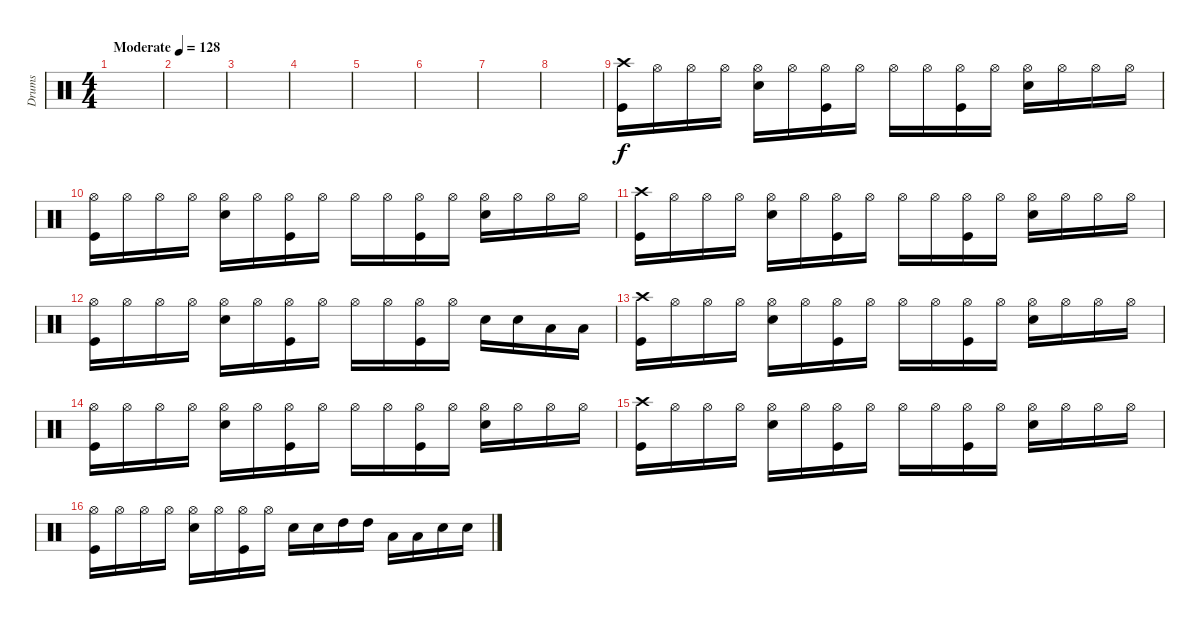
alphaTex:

\track ("Drums" "Drums") {instrument percussion}
\staff {score}
\articulation defaults
\ts (4 4)
\tempo (128 "Moderate")
\clef neutral
\ks c
|
|
|
|
|
|
|
|
("Kick (hit)" "Crash high (hit)").16 "Hi-Hat (open)".16 "Hi-Hat (open)".16 "Hi-Hat (open)".16 ("Snare (hit) 2" "Hi-Hat (open)").16 "Hi-Hat (open)".16 ("Kick (hit)" "Hi-Hat (open)").16 "Hi-Hat (open)".16 "Hi-Hat (open)".16 "Hi-Hat (open)".16 ("Kick (hit)" "Hi-Hat (open)").16 "Hi-Hat (open)".16 ("Snare (hit) 2" "Hi-Hat (open)").16 "Hi-Hat (open)".16 "Hi-Hat (open)".16 "Hi-Hat (open)".16 |
("Kick (hit)" "Hi-Hat (open)").16 "Hi-Hat (open)".16 "Hi-Hat (open)".16 "Hi-Hat (open)".16 ("Snare (hit) 2" "Hi-Hat (open)").16 "Hi-Hat (open)".16 ("Kick (hit)" "Hi-Hat (open)").16 "Hi-Hat (open)".16 "Hi-Hat (open)".16 "Hi-Hat (open)".16 ("Kick (hit)" "Hi-Hat (open)").16 "Hi-Hat (open)".16 ("Snare (hit) 2" "Hi-Hat (open)").16 "Hi-Hat (open)".16 "Hi-Hat (open)".16 "Hi-Hat (open)".16 |
("Kick (hit)" "Crash high (hit)").16 "Hi-Hat (open)".16 "Hi-Hat (open)".16 "Hi-Hat (open)".16 ("Snare (hit) 2" "Hi-Hat (open)").16 "Hi-Hat (open)".16 ("Kick (hit)" "Hi-Hat (open)").16 "Hi-Hat (open)".16 "Hi-Hat (open)".16 "Hi-Hat (open)".16 ("Kick (hit)" "Hi-Hat (open)").16 "Hi-Hat (open)".16 ("Snare (hit) 2" "Hi-Hat (open)").16 "Hi-Hat (open)".16 "Hi-Hat (open)".16 "Hi-Hat (open)".16 |
("Kick (hit)" "Hi-Hat (open)").16 "Hi-Hat (open)".16 "Hi-Hat (open)".16 "Hi-Hat (open)".16 ("Snare (hit) 2" "Hi-Hat (open)").16 "Hi-Hat (open)".16 ("Kick (hit)" "Hi-Hat (open)").16 "Hi-Hat (open)".16 "Hi-Hat (open)".16 "Hi-Hat (open)".16 ("Kick (hit)" "Hi-Hat (open)").16 "Hi-Hat (open)".16 "Snare (hit) 2".16 "Electric Snare (hit)".16 "Low Tom (hit)".16 "Low Tom (hit)".16 |
("Kick (hit)" "Crash high (hit)").16 "Hi-Hat (open)".16 "Hi-Hat (open)".16 "Hi-Hat (open)".16 ("Snare (hit) 2" "Hi-Hat (open)").16 "Hi-Hat (open)".16 ("Kick (hit)" "Hi-Hat (open)").16 "Hi-Hat (open)".16 "Hi-Hat (open)".16 "Hi-Hat (open)".16 ("Kick (hit)" "Hi-Hat (open)").16 "Hi-Hat (open)".16 ("Snare (hit) 2" "Hi-Hat (open)").16 "Hi-Hat (open)".16 "Hi-Hat (open)".16 "Hi-Hat (open)".16 |
("Kick (hit)" "Hi-Hat (open)").16 "Hi-Hat (open)".16 "Hi-Hat (open)".16 "Hi-Hat (open)".16 ("Snare (hit) 2" "Hi-Hat (open)").16 "Hi-Hat (open)".16 ("Kick (hit)" "Hi-Hat (open)").16 "Hi-Hat (open)".16 "Hi-Hat (open)".16 "Hi-Hat (open)".16 ("Kick (hit)" "Hi-Hat (open)").16 "Hi-Hat (open)".16 ("Snare (hit) 2" "Hi-Hat (open)").16 "Hi-Hat (open)".16 "Hi-Hat (open)".16 "Hi-Hat (open)".16 |
("Kick (hit)" "Crash high (hit)").16 "Hi-Hat (open)".16 "Hi-Hat (open)".16 "Hi-Hat (open)".16 ("Snare (hit) 2" "Hi-Hat (open)").16 "Hi-Hat (open)".16 ("Kick (hit)" "Hi-Hat (open)").16 "Hi-Hat (open)".16 "Hi-Hat (open)".16 "Hi-Hat (open)".16 ("Kick (hit)" "Hi-Hat (open)").16 "Hi-Hat (open)".16 ("Snare (hit) 2" "Hi-Hat (open)").16 "Hi-Hat (open)".16 "Hi-Hat (open)".16 "Hi-Hat (open)".16 |
("Kick (hit)" "Hi-Hat (open)").16 "Hi-Hat (open)".16 "Hi-Hat (open)".16 "Hi-Hat (open)".16 ("Snare (hit) 2" "Hi-Hat (open)").16 "Hi-Hat (open)".16 ("Kick (hit)" "Hi-Hat (open)").16 "Hi-Hat (open)".16 "Snare (hit) 2".16 "Electric Snare (hit)".16 "High Tom (hit)".16 "High Tom (hit)".16 "Low Tom (hit)".16 "Low Tom (hit)".16 "Snare (hit) 2".16 "Electric Snare (hit)".16
